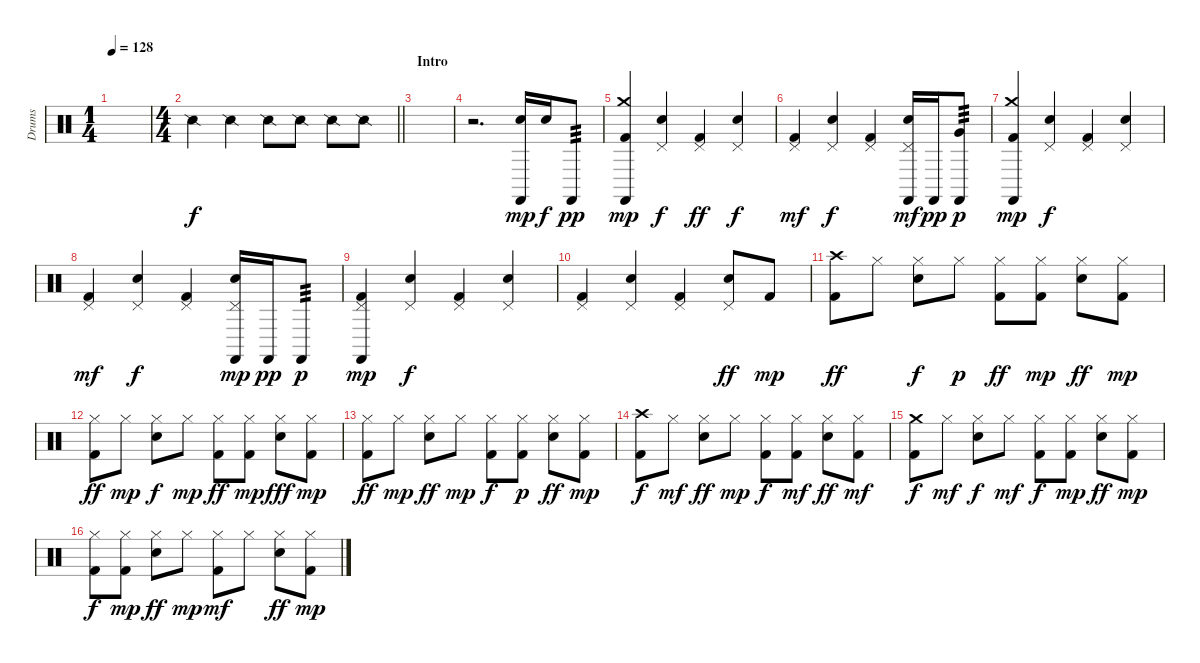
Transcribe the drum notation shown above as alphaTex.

\track ("Drums" "Drums") {instrument percussion}
\staff {score}
\articulation defaults
\ts (1 4)
\tempo 128
\clef neutral
\ks c
|
\ts (4 4)
\barLineRight lightlight "Snare (side stick) 2".4 "Snare (side stick) 2".4 "Snare (side stick) 2".8 "Snare (side stick) 2".8 "Snare (side stick) 2".8 "Snare (side stick) 2".8
|
\section ("" "Intro")
|
r.2{d} ("Electric Snare (hit)" "Castanets (hit)").16{dy mp} "Electric Snare (hit)".16{dy f} "Castanets (hit)".8{tp 3 dy pp} |
("Kick (hit) 2" "Crash medium (hit)" "Castanets (hit)").4{dy mp} ("Electric Snare (hit)" "Pedal Hi-Hat (hit)").4{dy f} ("Kick (hit) 2" "Pedal Hi-Hat (hit)").4{dy ff} ("Electric Snare (hit)" "Pedal Hi-Hat (hit)").4{dy f} |
("Kick (hit) 2" "Pedal Hi-Hat (hit)").4{dy mf} ("Electric Snare (hit)" "Pedal Hi-Hat (hit)").4{dy f} ("Kick (hit) 2" "Pedal Hi-Hat (hit)").4 ("Electric Snare (hit)" "Castanets (hit)" "Pedal Hi-Hat (hit)").16{dy mf} "Castanets (hit)".16{dy pp} ("Very Low Tom (hit)" "Castanets (hit)").8{tp 3 dy p} |
("Kick (hit) 2" "Crash medium (hit)" "Castanets (hit)").4{dy mp} ("Electric Snare (hit)" "Pedal Hi-Hat (hit)").4{dy f} ("Kick (hit) 2" "Pedal Hi-Hat (hit)").4 ("Electric Snare (hit)" "Pedal Hi-Hat (hit)").4 |
("Kick (hit) 2" "Pedal Hi-Hat (hit)").4{dy mf} ("Electric Snare (hit)" "Pedal Hi-Hat (hit)").4{dy f} ("Kick (hit) 2" "Pedal Hi-Hat (hit)").4 ("Electric Snare (hit)" "Castanets (hit)" "Pedal Hi-Hat (hit)").16{dy mp} "Castanets (hit)".16{dy pp} "Castanets (hit)".8{tp 3 dy p} |
("Kick (hit) 2" "Pedal Hi-Hat (hit)" "Castanets (hit)").4{dy mp} ("Electric Snare (hit)" "Pedal Hi-Hat (hit)").4{dy f} ("Kick (hit) 2" "Pedal Hi-Hat (hit)").4 ("Electric Snare (hit)" "Pedal Hi-Hat (hit)").4 |
("Kick (hit) 2" "Pedal Hi-Hat (hit)").4 ("Electric Snare (hit)" "Pedal Hi-Hat (hit)").4 ("Kick (hit) 2" "Pedal Hi-Hat (hit)").4 ("Electric Snare (hit)" "Pedal Hi-Hat (hit)").8{dy ff} "Kick (hit) 2".8{dy mp} |
("Kick (hit) 2" "Crash high (hit)").8{dy ff} "Hi-Hat (closed)".8 ("Electric Snare (hit)" "Hi-Hat (closed)").8{dy f} "Hi-Hat (closed)".8{dy p} ("Kick (hit) 2" "Hi-Hat (closed)").8{dy ff} ("Kick (hit) 2" "Hi-Hat (closed)").8{dy mp} ("Electric Snare (hit)" "Hi-Hat (closed)").8{dy ff} ("Kick (hit) 2" "Hi-Hat (closed)").8{dy mp} |
("Kick (hit) 2" "Hi-Hat (closed)").8{dy ff} "Hi-Hat (closed)".8{dy mp} ("Electric Snare (hit)" "Hi-Hat (closed)").8{dy f} "Hi-Hat (closed)".8{dy mp} ("Kick (hit) 2" "Hi-Hat (closed)").8{dy ff} ("Kick (hit) 2" "Hi-Hat (closed)").8{dy mp} ("Electric Snare (hit)" "Hi-Hat (closed)").8{dy fff} ("Kick (hit) 2" "Hi-Hat (closed)").8{dy mp} |
("Kick (hit) 2" "Hi-Hat (closed)").8{dy ff} "Hi-Hat (closed)".8{dy mp} ("Electric Snare (hit)" "Hi-Hat (closed)").8{dy ff} "Hi-Hat (closed)".8{dy mp} ("Kick (hit) 2" "Hi-Hat (closed)").8{dy f} ("Kick (hit) 2" "Hi-Hat (closed)").8{dy p} ("Electric Snare (hit)" "Hi-Hat (closed)").8{dy ff} ("Kick (hit) 2" "Hi-Hat (closed)").8{dy mp} |
("Kick (hit) 2" "Crash high (hit)").8{dy f} "Hi-Hat (closed)".8{dy mf} ("Electric Snare (hit)" "Hi-Hat (closed)").8{dy ff} "Hi-Hat (closed)".8{dy mp} ("Kick (hit) 2" "Hi-Hat (closed)").8{dy f} ("Kick (hit) 2" "Hi-Hat (closed)").8{dy mf} ("Electric Snare (hit)" "Hi-Hat (closed)").8{dy ff} ("Kick (hit) 2" "Hi-Hat (closed)").8{dy mf} |
("Kick (hit) 2" "Crash medium (hit)").8{dy f} "Hi-Hat (closed)".8{dy mf} ("Electric Snare (hit)" "Hi-Hat (closed)").8{dy f} "Hi-Hat (closed)".8{dy mf} ("Kick (hit) 2" "Hi-Hat (closed)").8{dy f} ("Kick (hit) 2" "Hi-Hat (closed)").8{dy mp} ("Electric Snare (hit)" "Hi-Hat (closed)").8{dy ff} ("Kick (hit) 2" "Hi-Hat (closed)").8{dy mp} |
("Kick (hit) 2" "Hi-Hat (closed)").8{dy f} ("Kick (hit) 2" "Hi-Hat (closed)").8{dy mp} ("Electric Snare (hit)" "Hi-Hat (closed)").8{dy ff} "Hi-Hat (closed)".8{dy mp} ("Kick (hit) 2" "Hi-Hat (closed)").8{dy mf} "Hi-Hat (closed)".8 ("Electric Snare (hit)" "Hi-Hat (closed)").8{dy ff} ("Kick (hit) 2" "Hi-Hat (closed)").8{dy mp}
